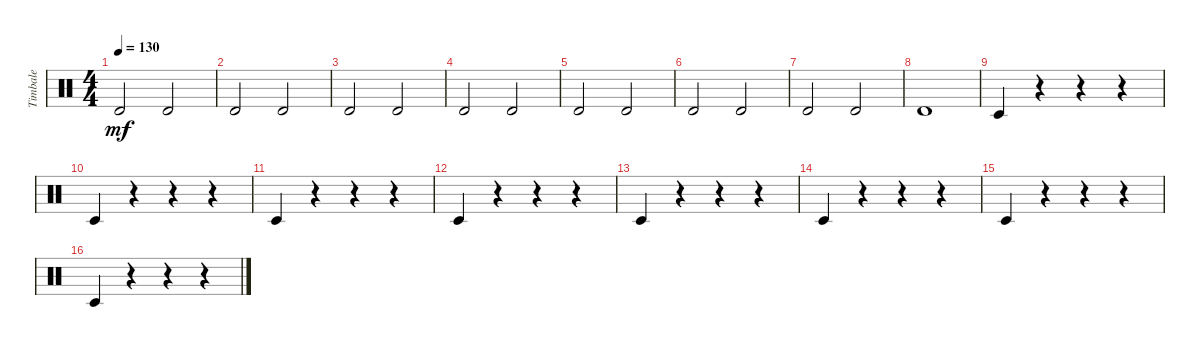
\track ("Timbale" "Timbale") {instrument percussion}
\staff {score}
\articulation defaults
\ts (4 4)
\tempo 130
\clef neutral
\ks c "Timbale high (hit)".2{dy mf} "Timbale high (hit)".2
|
"Timbale high (hit)".2 "Timbale high (hit)".2 |
"Timbale high (hit)".2 "Timbale high (hit)".2 |
"Timbale high (hit)".2 "Timbale high (hit)".2 |
"Timbale high (hit)".2 "Timbale high (hit)".2 |
"Timbale high (hit)".2 "Timbale high (hit)".2 |
"Timbale high (hit)".2 "Timbale high (hit)".2 |
"Timbale high (hit)".1 |
"Timbale low (hit)".4 r.4 r.4 r.4 |
"Timbale low (hit)".4 r.4 r.4 r.4 |
"Timbale low (hit)".4 r.4 r.4 r.4 |
"Timbale low (hit)".4 r.4 r.4 r.4 |
"Timbale low (hit)".4 r.4 r.4 r.4 |
"Timbale low (hit)".4 r.4 r.4 r.4 |
"Timbale low (hit)".4 r.4 r.4 r.4 |
"Timbale low (hit)".4 r.4 r.4 r.4
